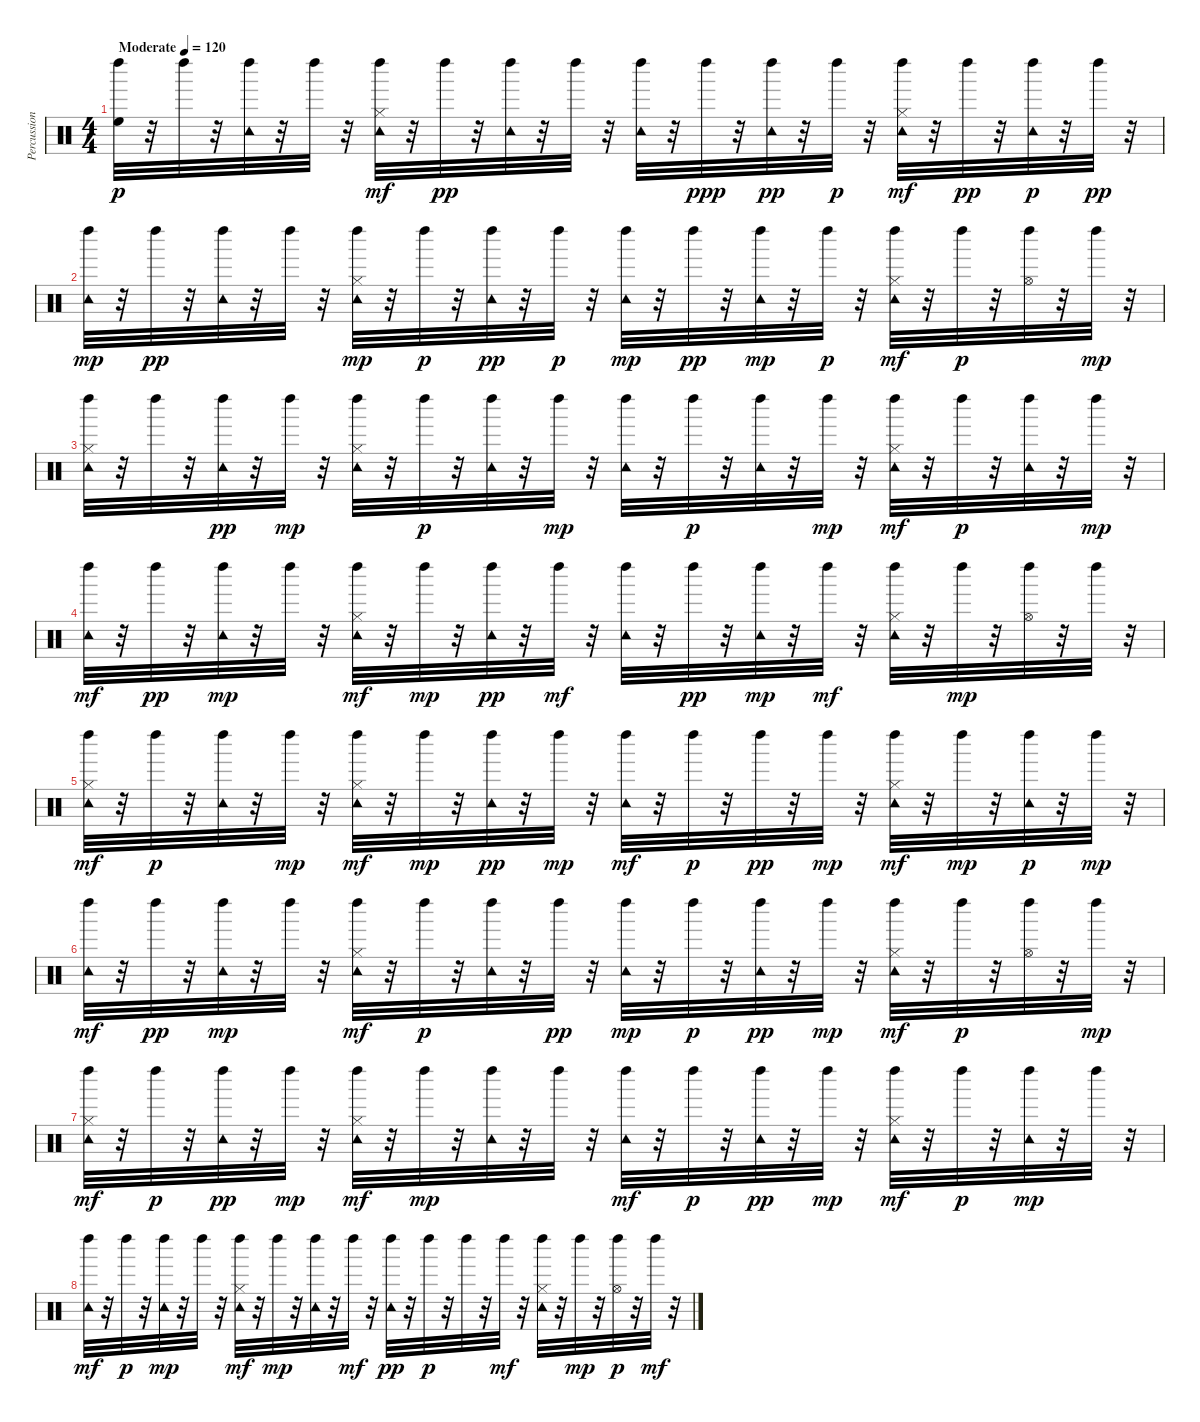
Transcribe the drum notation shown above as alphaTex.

\track ("Percussioni" "Percussion") {instrument percussion}
\staff {score}
\articulation defaults
\ts (4 4)
\tempo (120 "Moderate")
\clef neutral
\ks c
("High Floor Tom (hit)" "Left Maraca (hit)").32{dy p} r.32 "Left Maraca (hit)".32 r.32 ("Tambourine (hit)" "Left Maraca (hit)").32 r.32 "Left Maraca (hit)".32 r.32 ("Hi-Hat (closed)" "Tambourine (hit)" "Left Maraca (hit)").32{dy mf} r.32 "Left Maraca (hit)".32{dy pp} r.32 ("Tambourine (hit)" "Left Maraca (hit)").32 r.32 "Left Maraca (hit)".32 r.32 ("Tambourine (hit)" "Left Maraca (hit)").32 r.32 "Left Maraca (hit)".32{dy ppp} r.32 ("Tambourine (hit)" "Left Maraca (hit)").32{dy pp} r.32 "Left Maraca (hit)".32{dy p} r.32 ("Hi-Hat (closed)" "Tambourine (hit)" "Left Maraca (hit)").32{dy mf} r.32 "Left Maraca (hit)".32{dy pp} r.32 ("Tambourine (hit)" "Left Maraca (hit)").32{dy p} r.32 "Left Maraca (hit)".32{dy pp} r.32 |
("Tambourine (hit)" "Left Maraca (hit)").32{dy mp} r.32 "Left Maraca (hit)".32{dy pp} r.32 ("Tambourine (hit)" "Left Maraca (hit)").32 r.32 "Left Maraca (hit)".32 r.32 ("Hi-Hat (closed)" "Tambourine (hit)" "Left Maraca (hit)").32{dy mp} r.32 "Left Maraca (hit)".32{dy p} r.32 ("Tambourine (hit)" "Left Maraca (hit)").32{dy pp} r.32 "Left Maraca (hit)".32{dy p} r.32 ("Tambourine (hit)" "Left Maraca (hit)").32{dy mp} r.32 "Left Maraca (hit)".32{dy pp} r.32 ("Tambourine (hit)" "Left Maraca (hit)").32{dy mp} r.32 "Left Maraca (hit)".32{dy p} r.32 ("Hi-Hat (closed)" "Tambourine (hit)" "Left Maraca (hit)").32{dy mf} r.32 "Left Maraca (hit)".32{dy p} r.32 ("Hi-Hat (open)" "Left Maraca (hit)").32 r.32 "Left Maraca (hit)".32{dy mp} r.32 |
("Hi-Hat (closed)" "Tambourine (hit)" "Left Maraca (hit)").32 r.32 "Left Maraca (hit)".32 r.32 ("Tambourine (hit)" "Left Maraca (hit)").32{dy pp} r.32 "Left Maraca (hit)".32{dy mp} r.32 ("Hi-Hat (closed)" "Tambourine (hit)" "Left Maraca (hit)").32 r.32 "Left Maraca (hit)".32{dy p} r.32 ("Tambourine (hit)" "Left Maraca (hit)").32 r.32 "Left Maraca (hit)".32{dy mp} r.32 ("Tambourine (hit)" "Left Maraca (hit)").32 r.32 "Left Maraca (hit)".32{dy p} r.32 ("Tambourine (hit)" "Left Maraca (hit)").32 r.32 "Left Maraca (hit)".32{dy mp} r.32 ("Hi-Hat (closed)" "Tambourine (hit)" "Left Maraca (hit)").32{dy mf} r.32 "Left Maraca (hit)".32{dy p} r.32 ("Tambourine (hit)" "Left Maraca (hit)").32 r.32 "Left Maraca (hit)".32{dy mp} r.32 |
("Tambourine (hit)" "Left Maraca (hit)").32{dy mf} r.32 "Left Maraca (hit)".32{dy pp} r.32 ("Tambourine (hit)" "Left Maraca (hit)").32{dy mp} r.32 "Left Maraca (hit)".32 r.32 ("Hi-Hat (closed)" "Tambourine (hit)" "Left Maraca (hit)").32{dy mf} r.32 "Left Maraca (hit)".32{dy mp} r.32 ("Tambourine (hit)" "Left Maraca (hit)").32{dy pp} r.32 "Left Maraca (hit)".32{dy mf} r.32 ("Tambourine (hit)" "Left Maraca (hit)").32 r.32 "Left Maraca (hit)".32{dy pp} r.32 ("Tambourine (hit)" "Left Maraca (hit)").32{dy mp} r.32 "Left Maraca (hit)".32{dy mf} r.32 ("Hi-Hat (closed)" "Tambourine (hit)" "Left Maraca (hit)").32 r.32 "Left Maraca (hit)".32{dy mp} r.32 ("Hi-Hat (open)" "Left Maraca (hit)").32 r.32 "Left Maraca (hit)".32 r.32 |
("Hi-Hat (closed)" "Tambourine (hit)" "Left Maraca (hit)").32{dy mf} r.32 "Left Maraca (hit)".32{dy p} r.32 ("Tambourine (hit)" "Left Maraca (hit)").32 r.32 "Left Maraca (hit)".32{dy mp} r.32 ("Hi-Hat (closed)" "Tambourine (hit)" "Left Maraca (hit)").32{dy mf} r.32 "Left Maraca (hit)".32{dy mp} r.32 ("Tambourine (hit)" "Left Maraca (hit)").32{dy pp} r.32 "Left Maraca (hit)".32{dy mp} r.32 ("Tambourine (hit)" "Left Maraca (hit)").32{dy mf} r.32 "Left Maraca (hit)".32{dy p} r.32 "Left Maraca (hit)".32{dy pp} r.32 "Left Maraca (hit)".32{dy mp} r.32 ("Hi-Hat (closed)" "Tambourine (hit)" "Left Maraca (hit)").32{dy mf} r.32 "Left Maraca (hit)".32{dy mp} r.32 ("Tambourine (hit)" "Left Maraca (hit)").32{dy p} r.32 "Left Maraca (hit)".32{dy mp} r.32 |
("Tambourine (hit)" "Left Maraca (hit)").32{dy mf} r.32 "Left Maraca (hit)".32{dy pp} r.32 ("Tambourine (hit)" "Left Maraca (hit)").32{dy mp} r.32 "Left Maraca (hit)".32 r.32 ("Hi-Hat (closed)" "Tambourine (hit)" "Left Maraca (hit)").32{dy mf} r.32 "Left Maraca (hit)".32{dy p} r.32 ("Tambourine (hit)" "Left Maraca (hit)").32 r.32 "Left Maraca (hit)".32{dy pp} r.32 ("Tambourine (hit)" "Left Maraca (hit)").32{dy mp} r.32 "Left Maraca (hit)".32{dy p} r.32 ("Tambourine (hit)" "Left Maraca (hit)").32{dy pp} r.32 "Left Maraca (hit)".32{dy mp} r.32 ("Hi-Hat (closed)" "Tambourine (hit)" "Left Maraca (hit)").32{dy mf} r.32 "Left Maraca (hit)".32{dy p} r.32 ("Hi-Hat (open)" "Left Maraca (hit)").32 r.32 "Left Maraca (hit)".32{dy mp} r.32 |
("Hi-Hat (closed)" "Tambourine (hit)" "Left Maraca (hit)").32{dy mf} r.32 "Left Maraca (hit)".32{dy p} r.32 ("Tambourine (hit)" "Left Maraca (hit)").32{dy pp} r.32 "Left Maraca (hit)".32{dy mp} r.32 ("Hi-Hat (closed)" "Tambourine (hit)" "Left Maraca (hit)").32{dy mf} r.32 "Left Maraca (hit)".32{dy mp} r.32 ("Tambourine (hit)" "Left Maraca (hit)").32 r.32 "Left Maraca (hit)".32 r.32 ("Tambourine (hit)" "Left Maraca (hit)").32{dy mf} r.32 "Left Maraca (hit)".32{dy p} r.32 ("Tambourine (hit)" "Left Maraca (hit)").32{dy pp} r.32 "Left Maraca (hit)".32{dy mp} r.32 ("Hi-Hat (closed)" "Tambourine (hit)" "Left Maraca (hit)").32{dy mf} r.32 "Left Maraca (hit)".32{dy p} r.32 ("Tambourine (hit)" "Left Maraca (hit)").32{dy mp} r.32 "Left Maraca (hit)".32 r.32 |
("Tambourine (hit)" "Left Maraca (hit)").32{dy mf} r.32 "Left Maraca (hit)".32{dy p} r.32 ("Tambourine (hit)" "Left Maraca (hit)").32{dy mp} r.32 "Left Maraca (hit)".32 r.32 ("Hi-Hat (closed)" "Tambourine (hit)" "Left Maraca (hit)").32{dy mf} r.32 "Left Maraca (hit)".32{dy mp} r.32 ("Tambourine (hit)" "Left Maraca (hit)").32 r.32 "Left Maraca (hit)".32{dy mf} r.32 ("Tambourine (hit)" "Left Maraca (hit)").32{dy pp} r.32 "Left Maraca (hit)".32{dy p} r.32 "Left Maraca (hit)".32 r.32 "Left Maraca (hit)".32{dy mf} r.32 ("Hi-Hat (closed)" "Tambourine (hit)" "Left Maraca (hit)").32 r.32 "Left Maraca (hit)".32{dy mp} r.32 ("Hi-Hat (open)" "Left Maraca (hit)").32{dy p} r.32 "Left Maraca (hit)".32{dy mf} r.32
